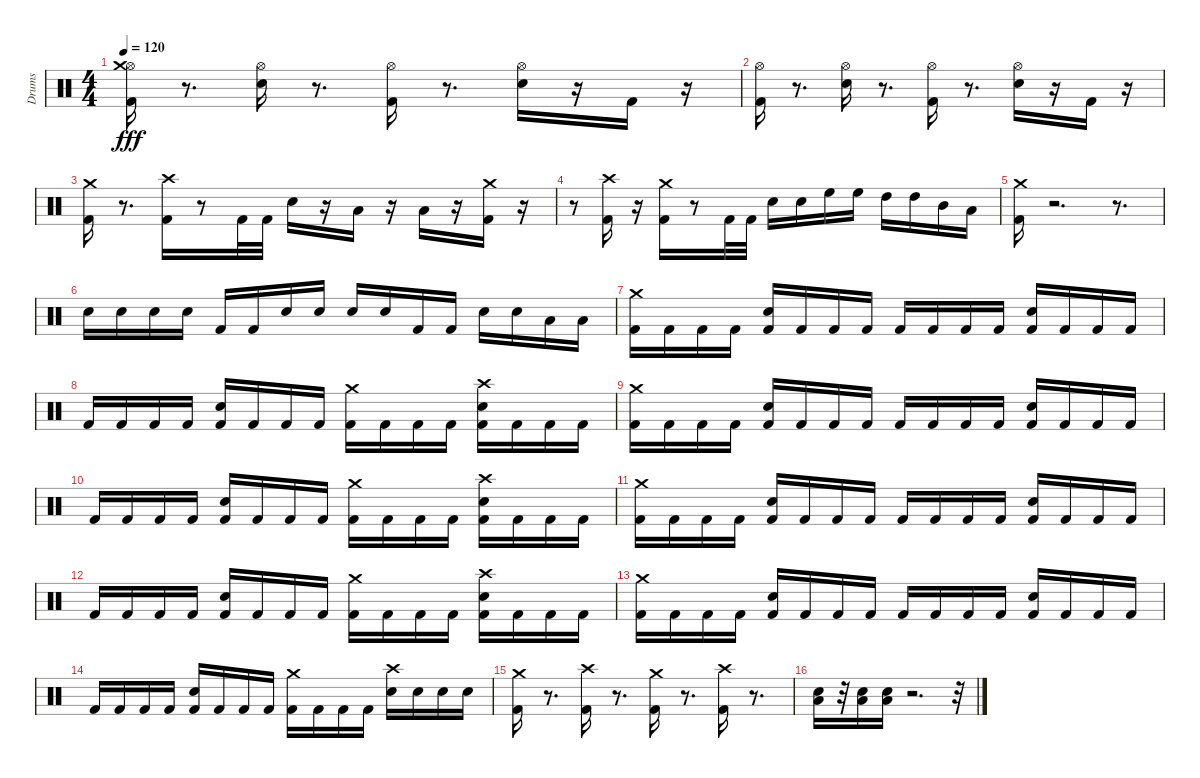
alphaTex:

\track ("Drums" "Drums") {instrument percussion}
\staff {score}
\articulation defaults
\ts (4 4)
\tempo 120
\clef neutral
\ks c
("Kick (hit) 2" "Hi-Hat (open)" "Crash medium (hit)").16{dy fff} r.8{d} ("Electric Snare (hit)" "Hi-Hat (open)").16 r.8{d} ("Kick (hit) 2" "Hi-Hat (open)").16 r.8{d} ("Electric Snare (hit)" "Hi-Hat (open)").16 r.16 "Kick (hit) 2".16 r.16 |
("Kick (hit) 2" "Hi-Hat (open)").16 r.8{d} ("Electric Snare (hit)" "Hi-Hat (open)").16 r.8{d} ("Kick (hit) 2" "Hi-Hat (open)").16 r.8{d} ("Electric Snare (hit)" "Hi-Hat (open)").16 r.16 "Kick (hit) 2".16 r.16 |
("Kick (hit) 2" "Crash medium (hit)").16 r.8{d} ("Kick (hit) 2" "Crash high (hit)").16 r.8 "Kick (hit) 2".32 "Kick (hit) 2".32 "Electric Snare (hit)".16 r.16 "Low Tom (hit)".16 r.16 "Low Floor Tom (hit)".16 r.16 ("Kick (hit) 2" "Crash medium (hit)").16 r.16 |
r.8 ("Kick (hit) 2" "Crash high (hit)").16 r.16 ("Kick (hit) 2" "Crash medium (hit)").16 r.8 "Kick (hit) 2".32 "Kick (hit) 2".32 "Electric Snare (hit)".16 "Electric Snare (hit)".16 "High Floor Tom (hit)".16 "High Floor Tom (hit)".16 "High Tom (hit)".16 "High Tom (hit)".16 "Mid Tom (hit)".16 "Low Tom (hit)".16 |
("Kick (hit) 2" "Crash medium (hit)").16 r.2{d} r.8{d} |
"Electric Snare (hit)".16 "Electric Snare (hit)".16 "Electric Snare (hit)".16 "Electric Snare (hit)".16 "Kick (hit) 2".16 "Kick (hit) 2".16 "Electric Snare (hit)".16 "Electric Snare (hit)".16 "Electric Snare (hit)".16 "Electric Snare (hit)".16 "Kick (hit) 2".16 "Kick (hit) 2".16 "Electric Snare (hit)".16 "Electric Snare (hit)".16 "Low Tom (hit)".16 "Low Floor Tom (hit)".16 |
("Kick (hit) 2" "Crash medium (hit)").16 "Kick (hit) 2".16 "Kick (hit) 2".16 "Kick (hit) 2".16 ("Kick (hit) 2" "Electric Snare (hit)").16 "Kick (hit) 2".16 "Kick (hit) 2".16 "Kick (hit) 2".16 "Kick (hit) 2".16 "Kick (hit) 2".16 "Kick (hit) 2".16 "Kick (hit) 2".16 ("Kick (hit) 2" "Electric Snare (hit)").16 "Kick (hit) 2".16 "Kick (hit) 2".16 "Kick (hit) 2".16 |
"Kick (hit) 2".16 "Kick (hit) 2".16 "Kick (hit) 2".16 "Kick (hit) 2".16 ("Kick (hit) 2" "Electric Snare (hit)").16 "Kick (hit) 2".16 "Kick (hit) 2".16 "Kick (hit) 2".16 ("Kick (hit) 2" "Crash medium (hit)").16 "Kick (hit) 2".16 "Kick (hit) 2".16 "Kick (hit) 2".16 ("Kick (hit) 2" "Electric Snare (hit)" "Crash high (hit)").16 "Kick (hit) 2".16 "Kick (hit) 2".16 "Kick (hit) 2".16 |
("Kick (hit) 2" "Crash medium (hit)").16 "Kick (hit) 2".16 "Kick (hit) 2".16 "Kick (hit) 2".16 ("Kick (hit) 2" "Electric Snare (hit)").16 "Kick (hit) 2".16 "Kick (hit) 2".16 "Kick (hit) 2".16 "Kick (hit) 2".16 "Kick (hit) 2".16 "Kick (hit) 2".16 "Kick (hit) 2".16 ("Kick (hit) 2" "Electric Snare (hit)").16 "Kick (hit) 2".16 "Kick (hit) 2".16 "Kick (hit) 2".16 |
"Kick (hit) 2".16 "Kick (hit) 2".16 "Kick (hit) 2".16 "Kick (hit) 2".16 ("Kick (hit) 2" "Electric Snare (hit)").16 "Kick (hit) 2".16 "Kick (hit) 2".16 "Kick (hit) 2".16 ("Kick (hit) 2" "Crash medium (hit)").16 "Kick (hit) 2".16 "Kick (hit) 2".16 "Kick (hit) 2".16 ("Kick (hit) 2" "Electric Snare (hit)" "Crash high (hit)").16 "Kick (hit) 2".16 "Kick (hit) 2".16 "Kick (hit) 2".16 |
("Kick (hit) 2" "Crash medium (hit)").16 "Kick (hit) 2".16 "Kick (hit) 2".16 "Kick (hit) 2".16 ("Kick (hit) 2" "Electric Snare (hit)").16 "Kick (hit) 2".16 "Kick (hit) 2".16 "Kick (hit) 2".16 "Kick (hit) 2".16 "Kick (hit) 2".16 "Kick (hit) 2".16 "Kick (hit) 2".16 ("Kick (hit) 2" "Electric Snare (hit)").16 "Kick (hit) 2".16 "Kick (hit) 2".16 "Kick (hit) 2".16 |
"Kick (hit) 2".16 "Kick (hit) 2".16 "Kick (hit) 2".16 "Kick (hit) 2".16 ("Kick (hit) 2" "Electric Snare (hit)").16 "Kick (hit) 2".16 "Kick (hit) 2".16 "Kick (hit) 2".16 ("Kick (hit) 2" "Crash medium (hit)").16 "Kick (hit) 2".16 "Kick (hit) 2".16 "Kick (hit) 2".16 ("Kick (hit) 2" "Electric Snare (hit)" "Crash high (hit)").16 "Kick (hit) 2".16 "Kick (hit) 2".16 "Kick (hit) 2".16 |
("Kick (hit) 2" "Crash medium (hit)").16 "Kick (hit) 2".16 "Kick (hit) 2".16 "Kick (hit) 2".16 ("Kick (hit) 2" "Electric Snare (hit)").16 "Kick (hit) 2".16 "Kick (hit) 2".16 "Kick (hit) 2".16 "Kick (hit) 2".16 "Kick (hit) 2".16 "Kick (hit) 2".16 "Kick (hit) 2".16 ("Kick (hit) 2" "Electric Snare (hit)").16 "Kick (hit) 2".16 "Kick (hit) 2".16 "Kick (hit) 2".16 |
"Kick (hit) 2".16 "Kick (hit) 2".16 "Kick (hit) 2".16 "Kick (hit) 2".16 ("Kick (hit) 2" "Electric Snare (hit)").16 "Kick (hit) 2".16 "Kick (hit) 2".16 "Kick (hit) 2".16 ("Kick (hit) 2" "Crash medium (hit)").16 "Kick (hit) 2".16 "Kick (hit) 2".16 "Kick (hit) 2".16 ("Electric Snare (hit)" "Crash high (hit)").16 "Electric Snare (hit)".16 "Electric Snare (hit)".16 "Electric Snare (hit)".16 |
("Kick (hit) 2" "Crash medium (hit)").16 r.8{d} ("Kick (hit) 2" "Crash high (hit)").16 r.8{d} ("Kick (hit) 2" "Crash medium (hit)").16 r.8{d} ("Kick (hit) 2" "Crash high (hit)").16 r.8{d} |
("Electric Snare (hit)" "Low Floor Tom (hit)").16 r.32 ("Electric Snare (hit)" "Low Floor Tom (hit)").16 ("Electric Snare (hit)" "Low Floor Tom (hit)").16 r.2{d} r.32
